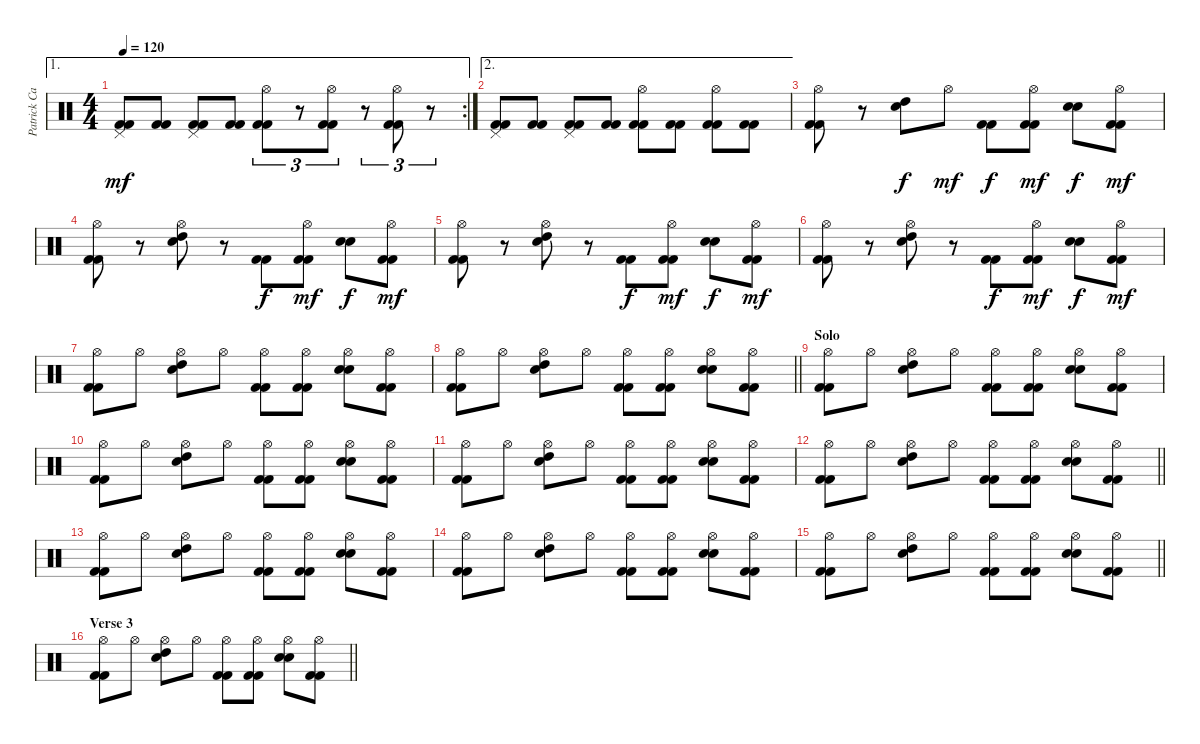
\track ("Patrick Carney" "Patrick Ca") {instrument percussion}
\staff {score}
\articulation defaults
\ae 1
\rc 2
\ts (4 4)
\tempo 120
\clef neutral
\ks c
("Pedal Hi-Hat (hit)" "Kick (hit) 2" "Kick (hit) 2").8{dy mf} ("Kick (hit) 2" "Kick (hit) 2").8 ("Pedal Hi-Hat (hit)" "Kick (hit) 2" "Kick (hit) 2").8 ("Kick (hit) 2" "Kick (hit) 2").8 ("Hi-Hat (open)" "Kick (hit) 2" "Kick (hit) 2").8{tu (3 2)} r.8{tu (3 2)} ("Hi-Hat (open)" "Kick (hit) 2" "Kick (hit) 2").8{tu (3 2)} r.8{tu (3 2)} ("Hi-Hat (open)" "Kick (hit) 2" "Kick (hit) 2").8{tu (3 2)} r.8{tu (3 2)} |
\ae 2
("Pedal Hi-Hat (hit)" "Kick (hit) 2" "Kick (hit) 2").8 ("Kick (hit) 2" "Kick (hit) 2").8 ("Pedal Hi-Hat (hit)" "Kick (hit) 2" "Kick (hit) 2").8 ("Kick (hit) 2" "Kick (hit) 2").8 ("Hi-Hat (open)" "Kick (hit) 2" "Kick (hit) 2").8 ("Kick (hit) 2" "Kick (hit) 2").8 ("Hi-Hat (open)" "Kick (hit) 2" "Kick (hit) 2").8 ("Kick (hit) 2" "Kick (hit) 2").8 |
("Hi-Hat (open)" "Kick (hit) 2" "Kick (hit) 2").8 r.8 ("Electric Snare (hit)" "High Tom (hit)").8{dy f} "Hi-Hat (open)".8{dy mf} ("Kick (hit) 2" "Kick (hit) 2").8{dy f} ("Hi-Hat (open)" "Kick (hit) 2" "Kick (hit) 2").8{dy mf} ("Electric Snare (hit)" "Snare (hit) 2").8{dy f} ("Hi-Hat (open)" "Kick (hit) 2" "Kick (hit) 2").8{dy mf} |
("Hi-Hat (open)" "Kick (hit) 2" "Kick (hit) 2").8 r.8 ("Hi-Hat (open)" "Electric Snare (hit)" "High Tom (hit)").8 r.8 ("Kick (hit) 2" "Kick (hit) 2").8{dy f} ("Hi-Hat (open)" "Kick (hit) 2" "Kick (hit) 2").8{dy mf} ("Electric Snare (hit)" "Snare (hit) 2").8{dy f} ("Hi-Hat (open)" "Kick (hit) 2" "Kick (hit) 2").8{dy mf} |
("Hi-Hat (open)" "Kick (hit) 2" "Kick (hit) 2").8 r.8 ("Hi-Hat (open)" "Electric Snare (hit)" "High Tom (hit)").8 r.8 ("Kick (hit) 2" "Kick (hit) 2").8{dy f} ("Hi-Hat (open)" "Kick (hit) 2" "Kick (hit) 2").8{dy mf} ("Electric Snare (hit)" "Snare (hit) 2").8{dy f} ("Hi-Hat (open)" "Kick (hit) 2" "Kick (hit) 2").8{dy mf} |
("Hi-Hat (open)" "Kick (hit) 2" "Kick (hit) 2").8 r.8 ("Hi-Hat (open)" "Electric Snare (hit)" "High Tom (hit)").8 r.8 ("Kick (hit) 2" "Kick (hit) 2").8{dy f} ("Hi-Hat (open)" "Kick (hit) 2" "Kick (hit) 2").8{dy mf} ("Electric Snare (hit)" "Snare (hit) 2").8{dy f} ("Hi-Hat (open)" "Kick (hit) 2" "Kick (hit) 2").8{dy mf} |
("Hi-Hat (open)" "Kick (hit) 2" "Kick (hit) 2").8 "Hi-Hat (open)".8 ("Hi-Hat (open)" "Electric Snare (hit)" "High Tom (hit)").8 "Hi-Hat (open)".8 ("Hi-Hat (open)" "Kick (hit) 2" "Kick (hit) 2").8 ("Hi-Hat (open)" "Kick (hit) 2" "Kick (hit) 2").8 ("Hi-Hat (open)" "Electric Snare (hit)" "Snare (hit) 2").8 ("Hi-Hat (open)" "Kick (hit) 2" "Kick (hit) 2").8 |
\barLineRight lightlight
("Hi-Hat (open)" "Kick (hit) 2" "Kick (hit) 2").8 "Hi-Hat (open)".8 ("Hi-Hat (open)" "Electric Snare (hit)" "High Tom (hit)").8 "Hi-Hat (open)".8 ("Hi-Hat (open)" "Kick (hit) 2" "Kick (hit) 2").8 ("Hi-Hat (open)" "Kick (hit) 2" "Kick (hit) 2").8 ("Hi-Hat (open)" "Electric Snare (hit)" "Snare (hit) 2").8 ("Hi-Hat (open)" "Kick (hit) 2" "Kick (hit) 2").8 |
\section ("" "Solo")
("Hi-Hat (open)" "Kick (hit) 2" "Kick (hit) 2").8 "Hi-Hat (open)".8 ("Hi-Hat (open)" "Electric Snare (hit)" "High Tom (hit)").8 "Hi-Hat (open)".8 ("Hi-Hat (open)" "Kick (hit) 2" "Kick (hit) 2").8 ("Hi-Hat (open)" "Kick (hit) 2" "Kick (hit) 2").8 ("Hi-Hat (open)" "Electric Snare (hit)" "Snare (hit) 2").8 ("Hi-Hat (open)" "Kick (hit) 2" "Kick (hit) 2").8 |
("Hi-Hat (open)" "Kick (hit) 2" "Kick (hit) 2").8 "Hi-Hat (open)".8 ("Hi-Hat (open)" "Electric Snare (hit)" "High Tom (hit)").8 "Hi-Hat (open)".8 ("Hi-Hat (open)" "Kick (hit) 2" "Kick (hit) 2").8 ("Hi-Hat (open)" "Kick (hit) 2" "Kick (hit) 2").8 ("Hi-Hat (open)" "Electric Snare (hit)" "Snare (hit) 2").8 ("Hi-Hat (open)" "Kick (hit) 2" "Kick (hit) 2").8 |
("Hi-Hat (open)" "Kick (hit) 2" "Kick (hit) 2").8 "Hi-Hat (open)".8 ("Hi-Hat (open)" "Electric Snare (hit)" "High Tom (hit)").8 "Hi-Hat (open)".8 ("Hi-Hat (open)" "Kick (hit) 2" "Kick (hit) 2").8 ("Hi-Hat (open)" "Kick (hit) 2" "Kick (hit) 2").8 ("Hi-Hat (open)" "Electric Snare (hit)" "Snare (hit) 2").8 ("Hi-Hat (open)" "Kick (hit) 2" "Kick (hit) 2").8 |
\barLineRight lightlight
("Hi-Hat (open)" "Kick (hit) 2" "Kick (hit) 2").8 "Hi-Hat (open)".8 ("Hi-Hat (open)" "Electric Snare (hit)" "High Tom (hit)").8 "Hi-Hat (open)".8 ("Hi-Hat (open)" "Kick (hit) 2" "Kick (hit) 2").8 ("Hi-Hat (open)" "Kick (hit) 2" "Kick (hit) 2").8 ("Hi-Hat (open)" "Electric Snare (hit)" "Snare (hit) 2").8 ("Hi-Hat (open)" "Kick (hit) 2" "Kick (hit) 2").8 |
("Hi-Hat (open)" "Kick (hit) 2" "Kick (hit) 2").8 "Hi-Hat (open)".8 ("Hi-Hat (open)" "Electric Snare (hit)" "High Tom (hit)").8 "Hi-Hat (open)".8 ("Hi-Hat (open)" "Kick (hit) 2" "Kick (hit) 2").8 ("Hi-Hat (open)" "Kick (hit) 2" "Kick (hit) 2").8 ("Hi-Hat (open)" "Electric Snare (hit)" "Snare (hit) 2").8 ("Hi-Hat (open)" "Kick (hit) 2" "Kick (hit) 2").8 |
("Hi-Hat (open)" "Kick (hit) 2" "Kick (hit) 2").8 "Hi-Hat (open)".8 ("Hi-Hat (open)" "Electric Snare (hit)" "High Tom (hit)").8 "Hi-Hat (open)".8 ("Hi-Hat (open)" "Kick (hit) 2" "Kick (hit) 2").8 ("Hi-Hat (open)" "Kick (hit) 2" "Kick (hit) 2").8 ("Hi-Hat (open)" "Electric Snare (hit)" "Snare (hit) 2").8 ("Hi-Hat (open)" "Kick (hit) 2" "Kick (hit) 2").8 |
\barLineRight lightlight
("Hi-Hat (open)" "Kick (hit) 2" "Kick (hit) 2").8 "Hi-Hat (open)".8 ("Hi-Hat (open)" "Electric Snare (hit)" "High Tom (hit)").8 "Hi-Hat (open)".8 ("Hi-Hat (open)" "Kick (hit) 2" "Kick (hit) 2").8 ("Hi-Hat (open)" "Kick (hit) 2" "Kick (hit) 2").8 ("Hi-Hat (open)" "Electric Snare (hit)" "Snare (hit) 2").8 ("Hi-Hat (open)" "Kick (hit) 2" "Kick (hit) 2").8 |
\section ("" "Verse 3")
\barLineRight lightlight
("Hi-Hat (open)" "Kick (hit) 2" "Kick (hit) 2").8 "Hi-Hat (open)".8 ("Hi-Hat (open)" "Electric Snare (hit)" "High Tom (hit)").8 "Hi-Hat (open)".8 ("Hi-Hat (open)" "Kick (hit) 2" "Kick (hit) 2").8 ("Hi-Hat (open)" "Kick (hit) 2" "Kick (hit) 2").8 ("Hi-Hat (open)" "Electric Snare (hit)" "Snare (hit) 2").8 ("Hi-Hat (open)" "Kick (hit) 2" "Kick (hit) 2").8
